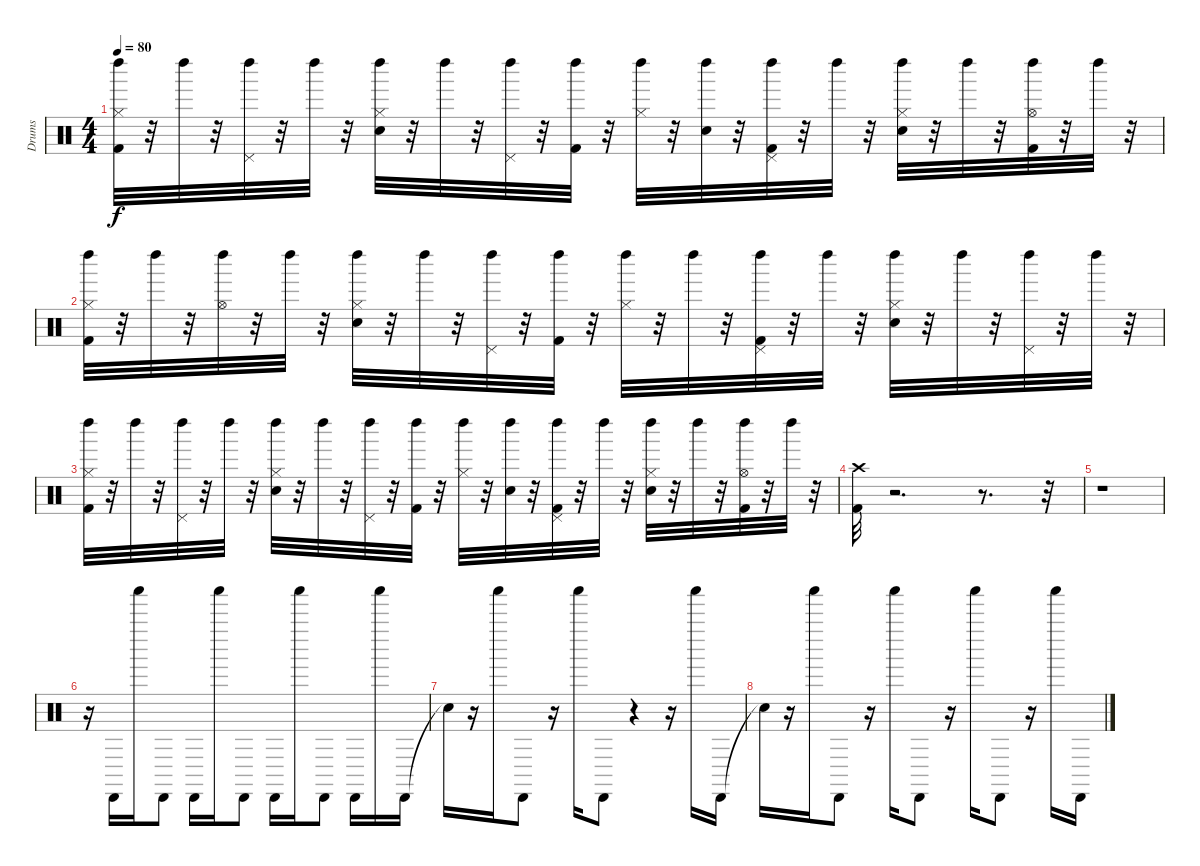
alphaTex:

\track ("Drums" "Drums") {instrument percussion}
\staff {score}
\articulation defaults
\ts (4 4)
\tempo 80
\clef neutral
\ks c
("Left Maraca (hit)" "Kick (hit) 2" "Hi-Hat (closed)").32{dy f} r.32 "Left Maraca (hit)".32 r.32 ("Left Maraca (hit)" "Pedal Hi-Hat (hit)").32 r.32 "Left Maraca (hit)".32 r.32 ("Left Maraca (hit)" "Snare (hit) 2" "Hi-Hat (closed)").32 r.32 "Left Maraca (hit)".32 r.32 ("Left Maraca (hit)" "Pedal Hi-Hat (hit)").32 r.32 ("Left Maraca (hit)" "Kick (hit) 2").32 r.32 ("Left Maraca (hit)" "Hi-Hat (closed)").32 r.32 ("Left Maraca (hit)" "Snare (hit) 2").32 r.32 ("Left Maraca (hit)" "Kick (hit) 2" "Pedal Hi-Hat (hit)").32 r.32 "Left Maraca (hit)".32 r.32 ("Left Maraca (hit)" "Snare (hit) 2" "Hi-Hat (closed)").32 r.32 "Left Maraca (hit)".32 r.32 ("Left Maraca (hit)" "Hi-Hat (open)" "Kick (hit) 2").32 r.32 "Left Maraca (hit)".32 r.32 |
("Left Maraca (hit)" "Kick (hit) 2" "Hi-Hat (closed)").32 r.32 "Left Maraca (hit)".32 r.32 ("Left Maraca (hit)" "Hi-Hat (open)").32 r.32 "Left Maraca (hit)".32 r.32 ("Left Maraca (hit)" "Snare (hit) 2" "Hi-Hat (closed)").32 r.32 "Left Maraca (hit)".32 r.32 ("Left Maraca (hit)" "Pedal Hi-Hat (hit)").32 r.32 ("Left Maraca (hit)" "Kick (hit) 2").32 r.32 ("Left Maraca (hit)" "Hi-Hat (closed)").32 r.32 "Left Maraca (hit)".32 r.32 ("Left Maraca (hit)" "Kick (hit) 2" "Pedal Hi-Hat (hit)").32 r.32 "Left Maraca (hit)".32 r.32 ("Left Maraca (hit)" "Snare (hit) 2" "Hi-Hat (closed)").32 r.32 "Left Maraca (hit)".32 r.32 ("Left Maraca (hit)" "Pedal Hi-Hat (hit)").32 r.32 "Left Maraca (hit)".32 r.32 |
("Left Maraca (hit)" "Kick (hit) 2" "Hi-Hat (closed)").32 r.32 "Left Maraca (hit)".32 r.32 ("Left Maraca (hit)" "Pedal Hi-Hat (hit)").32 r.32 "Left Maraca (hit)".32 r.32 ("Left Maraca (hit)" "Snare (hit) 2" "Hi-Hat (closed)").32 r.32 "Left Maraca (hit)".32 r.32 ("Left Maraca (hit)" "Pedal Hi-Hat (hit)").32 r.32 ("Left Maraca (hit)" "Kick (hit) 2").32 r.32 ("Left Maraca (hit)" "Hi-Hat (closed)").32 r.32 ("Left Maraca (hit)" "Snare (hit) 2").32 r.32 ("Left Maraca (hit)" "Kick (hit) 2" "Pedal Hi-Hat (hit)").32 r.32 "Left Maraca (hit)".32 r.32 ("Left Maraca (hit)" "Snare (hit) 2" "Hi-Hat (closed)").32 r.32 "Left Maraca (hit)".32 r.32 ("Left Maraca (hit)" "Hi-Hat (open)" "Kick (hit) 2").32 r.32 "Left Maraca (hit)".32 r.32 |
("Crash high (hit)" "Kick (hit) 2").32 r.2{d} r.8{d} r.32 |
r.1 |
r.16 "Cabasa (hit)".16 "Shaker (hit)".16 "Cabasa (hit)".8 "Cabasa (hit)".16 "Shaker (hit)".16 "Cabasa (hit)".8 "Cabasa (hit)".16 "Shaker (hit)".16 "Cabasa (hit)".8 "Cabasa (hit)".16 "Shaker (hit)".16 "Cabasa (hit)".16 |
"Snare (hit)"{t}.16 r.16 "Shaker (hit)".16 "Cabasa (hit)".8 r.16 "Shaker (hit)".16 "Cabasa (hit)".8 r.4 r.16 "Shaker (hit)".16 "Cabasa (hit)".16 |
"Snare (hit)"{t}.16 r.16 "Shaker (hit)".16 "Cabasa (hit)".8 r.16 "Shaker (hit)".16 "Cabasa (hit)".8 r.16 "Shaker (hit)".16 "Cabasa (hit)".8 r.16 "Shaker (hit)".16 "Cabasa (hit)".16
